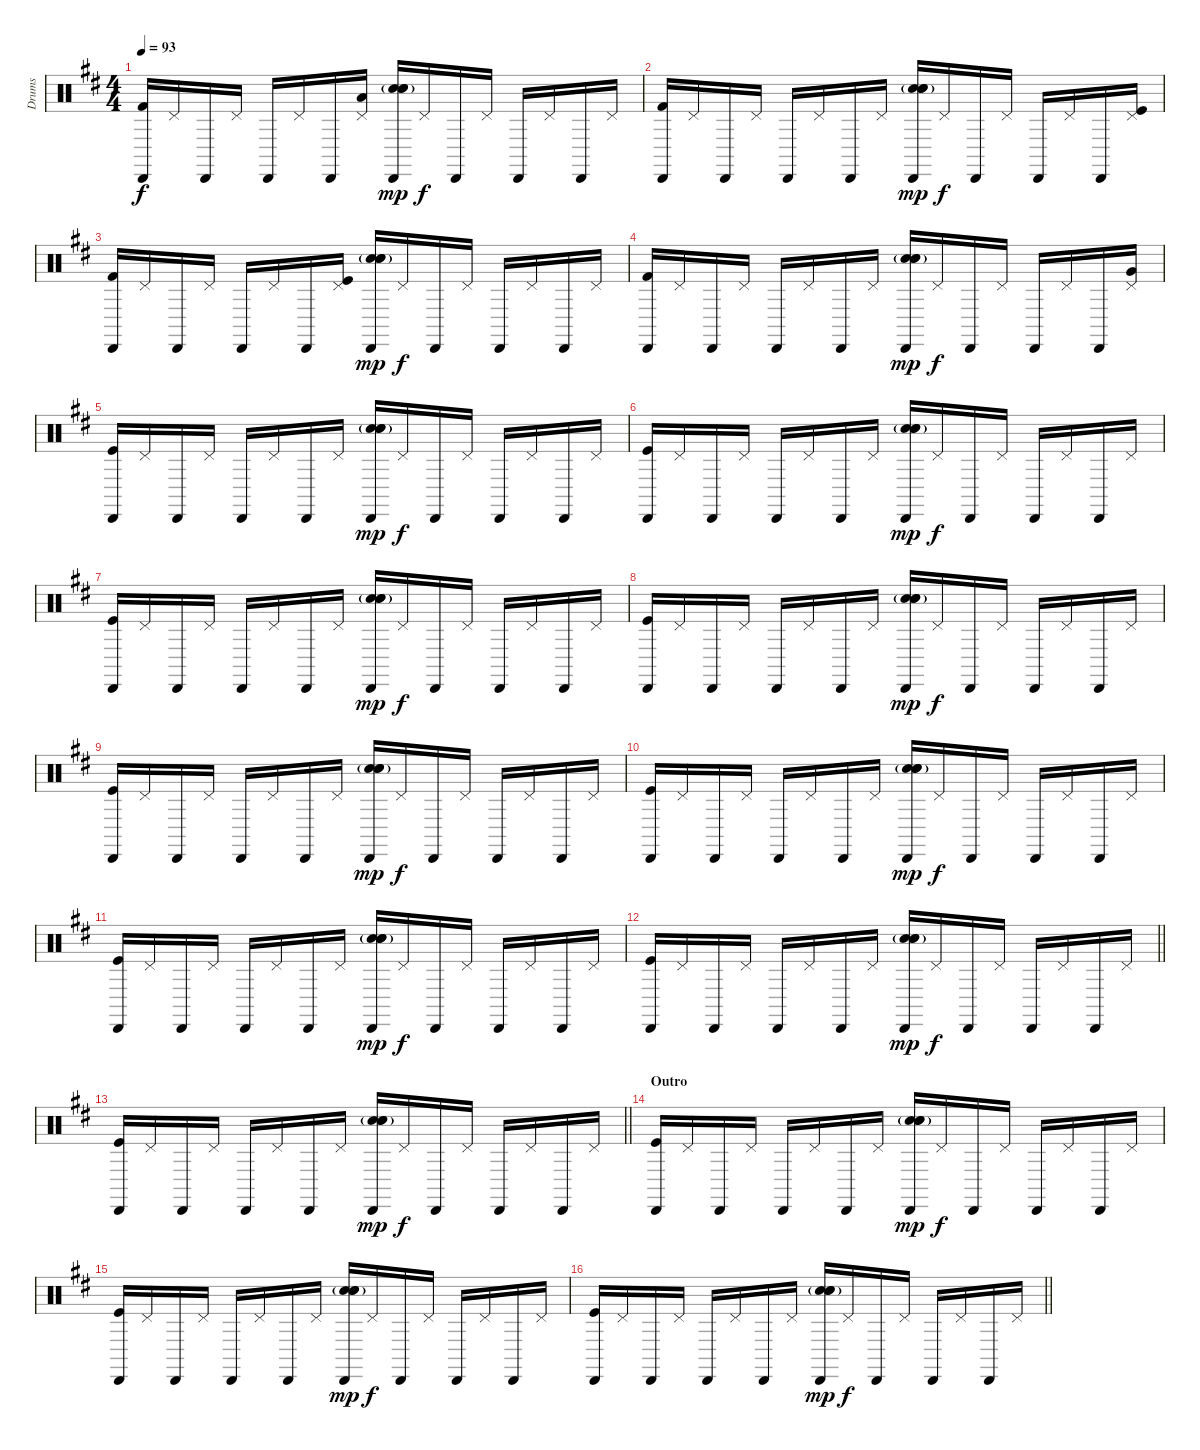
\track ("Drums" "Drums") {instrument percussion}
\staff {score}
\articulation defaults
\ts (4 4)
\tempo 93
\clef neutral
\ks d
("Cabasa (hit)" "Kick (hit) 2").16{dy f} "Pedal Hi-Hat (hit)".16 "Cabasa (hit)".16 "Pedal Hi-Hat (hit)".16 "Cabasa (hit)".16 "Pedal Hi-Hat (hit)".16 "Cabasa (hit)".16 ("Pedal Hi-Hat (hit)" "Low Tom (hit)").16 ("Cabasa (hit)" "Snare (hit) 2"{g} "Electric Snare (hit)"{g} "Electric Snare (hit)").16{dy mp} "Pedal Hi-Hat (hit)".16{dy f} "Cabasa (hit)".16 "Pedal Hi-Hat (hit)".16 "Cabasa (hit)".16 "Pedal Hi-Hat (hit)".16 "Cabasa (hit)".16 "Pedal Hi-Hat (hit)".16 |
("Cabasa (hit)" "Kick (hit) 2").16 "Pedal Hi-Hat (hit)".16 "Cabasa (hit)".16 "Pedal Hi-Hat (hit)".16 "Cabasa (hit)".16 "Pedal Hi-Hat (hit)".16 "Cabasa (hit)".16 "Pedal Hi-Hat (hit)".16 ("Cabasa (hit)" "Snare (hit) 2"{g} "Electric Snare (hit)"{g} "Electric Snare (hit)").16{dy mp} "Pedal Hi-Hat (hit)".16{dy f} "Cabasa (hit)".16 "Pedal Hi-Hat (hit)".16 "Cabasa (hit)".16 "Pedal Hi-Hat (hit)".16 "Cabasa (hit)".16 ("Pedal Hi-Hat (hit)" "Kick (hit)").16 |
("Cabasa (hit)" "Kick (hit) 2").16 "Pedal Hi-Hat (hit)".16 "Cabasa (hit)".16 "Pedal Hi-Hat (hit)".16 "Cabasa (hit)".16 "Pedal Hi-Hat (hit)".16 "Cabasa (hit)".16 ("Pedal Hi-Hat (hit)" "Kick (hit)").16 ("Cabasa (hit)" "Snare (hit) 2"{g} "Electric Snare (hit)"{g} "Electric Snare (hit)").16{dy mp} "Pedal Hi-Hat (hit)".16{dy f} "Cabasa (hit)".16 "Pedal Hi-Hat (hit)".16 "Cabasa (hit)".16 "Pedal Hi-Hat (hit)".16 "Cabasa (hit)".16 "Pedal Hi-Hat (hit)".16 |
("Cabasa (hit)" "Kick (hit) 2").16 "Pedal Hi-Hat (hit)".16 "Cabasa (hit)".16 "Pedal Hi-Hat (hit)".16 "Cabasa (hit)".16 "Pedal Hi-Hat (hit)".16 "Cabasa (hit)".16 "Pedal Hi-Hat (hit)".16 ("Cabasa (hit)" "Snare (hit) 2"{g} "Electric Snare (hit)"{g} "Electric Snare (hit)").16{dy mp} "Pedal Hi-Hat (hit)".16{dy f} "Cabasa (hit)".16 "Pedal Hi-Hat (hit)".16 "Cabasa (hit)".16 "Pedal Hi-Hat (hit)".16 "Cabasa (hit)".16 ("Pedal Hi-Hat (hit)" "Very Low Tom (hit)").16 |
("Cabasa (hit)" "Kick (hit)").16 "Pedal Hi-Hat (hit)".16 "Cabasa (hit)".16 "Pedal Hi-Hat (hit)".16 "Cabasa (hit)".16 "Pedal Hi-Hat (hit)".16 "Cabasa (hit)".16 "Pedal Hi-Hat (hit)".16 ("Cabasa (hit)" "Snare (hit) 2"{g} "Electric Snare (hit)"{g} "Electric Snare (hit)").16{dy mp} "Pedal Hi-Hat (hit)".16{dy f} "Cabasa (hit)".16 "Pedal Hi-Hat (hit)".16 "Cabasa (hit)".16 "Pedal Hi-Hat (hit)".16 "Cabasa (hit)".16 "Pedal Hi-Hat (hit)".16 |
("Cabasa (hit)" "Kick (hit)").16 "Pedal Hi-Hat (hit)".16 "Cabasa (hit)".16 "Pedal Hi-Hat (hit)".16 "Cabasa (hit)".16 "Pedal Hi-Hat (hit)".16 "Cabasa (hit)".16 "Pedal Hi-Hat (hit)".16 ("Cabasa (hit)" "Snare (hit) 2"{g} "Electric Snare (hit)"{g} "Electric Snare (hit)").16{dy mp} "Pedal Hi-Hat (hit)".16{dy f} "Cabasa (hit)".16 "Pedal Hi-Hat (hit)".16 "Cabasa (hit)".16 "Pedal Hi-Hat (hit)".16 "Cabasa (hit)".16 "Pedal Hi-Hat (hit)".16 |
("Cabasa (hit)" "Kick (hit)").16 "Pedal Hi-Hat (hit)".16 "Cabasa (hit)".16 "Pedal Hi-Hat (hit)".16 "Cabasa (hit)".16 "Pedal Hi-Hat (hit)".16 "Cabasa (hit)".16 "Pedal Hi-Hat (hit)".16 ("Cabasa (hit)" "Snare (hit) 2"{g} "Electric Snare (hit)"{g} "Electric Snare (hit)").16{dy mp} "Pedal Hi-Hat (hit)".16{dy f} "Cabasa (hit)".16 "Pedal Hi-Hat (hit)".16 "Cabasa (hit)".16 "Pedal Hi-Hat (hit)".16 "Cabasa (hit)".16 "Pedal Hi-Hat (hit)".16 |
("Cabasa (hit)" "Kick (hit)").16 "Pedal Hi-Hat (hit)".16 "Cabasa (hit)".16 "Pedal Hi-Hat (hit)".16 "Cabasa (hit)".16 "Pedal Hi-Hat (hit)".16 "Cabasa (hit)".16 "Pedal Hi-Hat (hit)".16 ("Cabasa (hit)" "Snare (hit) 2"{g} "Electric Snare (hit)"{g} "Electric Snare (hit)").16{dy mp} "Pedal Hi-Hat (hit)".16{dy f} "Cabasa (hit)".16 "Pedal Hi-Hat (hit)".16 "Cabasa (hit)".16 "Pedal Hi-Hat (hit)".16 "Cabasa (hit)".16 "Pedal Hi-Hat (hit)".16 |
("Cabasa (hit)" "Kick (hit)").16 "Pedal Hi-Hat (hit)".16 "Cabasa (hit)".16 "Pedal Hi-Hat (hit)".16 "Cabasa (hit)".16 "Pedal Hi-Hat (hit)".16 "Cabasa (hit)".16 "Pedal Hi-Hat (hit)".16 ("Cabasa (hit)" "Snare (hit) 2"{g} "Electric Snare (hit)"{g} "Electric Snare (hit)").16{dy mp} "Pedal Hi-Hat (hit)".16{dy f} "Cabasa (hit)".16 "Pedal Hi-Hat (hit)".16 "Cabasa (hit)".16 "Pedal Hi-Hat (hit)".16 "Cabasa (hit)".16 "Pedal Hi-Hat (hit)".16 |
("Cabasa (hit)" "Kick (hit)").16 "Pedal Hi-Hat (hit)".16 "Cabasa (hit)".16 "Pedal Hi-Hat (hit)".16 "Cabasa (hit)".16 "Pedal Hi-Hat (hit)".16 "Cabasa (hit)".16 "Pedal Hi-Hat (hit)".16 ("Cabasa (hit)" "Snare (hit) 2"{g} "Electric Snare (hit)"{g} "Electric Snare (hit)").16{dy mp} "Pedal Hi-Hat (hit)".16{dy f} "Cabasa (hit)".16 "Pedal Hi-Hat (hit)".16 "Cabasa (hit)".16 "Pedal Hi-Hat (hit)".16 "Cabasa (hit)".16 "Pedal Hi-Hat (hit)".16 |
("Cabasa (hit)" "Kick (hit)").16 "Pedal Hi-Hat (hit)".16 "Cabasa (hit)".16 "Pedal Hi-Hat (hit)".16 "Cabasa (hit)".16 "Pedal Hi-Hat (hit)".16 "Cabasa (hit)".16 "Pedal Hi-Hat (hit)".16 ("Cabasa (hit)" "Snare (hit) 2"{g} "Electric Snare (hit)"{g} "Electric Snare (hit)").16{dy mp} "Pedal Hi-Hat (hit)".16{dy f} "Cabasa (hit)".16 "Pedal Hi-Hat (hit)".16 "Cabasa (hit)".16 "Pedal Hi-Hat (hit)".16 "Cabasa (hit)".16 "Pedal Hi-Hat (hit)".16 |
\barLineRight lightlight
("Cabasa (hit)" "Kick (hit)").16 "Pedal Hi-Hat (hit)".16 "Cabasa (hit)".16 "Pedal Hi-Hat (hit)".16 "Cabasa (hit)".16 "Pedal Hi-Hat (hit)".16 "Cabasa (hit)".16 "Pedal Hi-Hat (hit)".16 ("Cabasa (hit)" "Snare (hit) 2"{g} "Electric Snare (hit)"{g} "Electric Snare (hit)").16{dy mp} "Pedal Hi-Hat (hit)".16{dy f} "Cabasa (hit)".16 "Pedal Hi-Hat (hit)".16 "Cabasa (hit)".16 "Pedal Hi-Hat (hit)".16 "Cabasa (hit)".16 "Pedal Hi-Hat (hit)".16 |
\barLineRight lightlight
("Cabasa (hit)" "Kick (hit)").16 "Pedal Hi-Hat (hit)".16 "Cabasa (hit)".16 "Pedal Hi-Hat (hit)".16 "Cabasa (hit)".16 "Pedal Hi-Hat (hit)".16 "Cabasa (hit)".16 "Pedal Hi-Hat (hit)".16 ("Cabasa (hit)" "Snare (hit) 2"{g} "Electric Snare (hit)"{g} "Electric Snare (hit)").16{dy mp} "Pedal Hi-Hat (hit)".16{dy f} "Cabasa (hit)".16 "Pedal Hi-Hat (hit)".16 "Cabasa (hit)".16 "Pedal Hi-Hat (hit)".16 "Cabasa (hit)".16 "Pedal Hi-Hat (hit)".16 |
\section ("" "Outro")
("Cabasa (hit)" "Kick (hit)").16 "Pedal Hi-Hat (hit)".16 "Cabasa (hit)".16 "Pedal Hi-Hat (hit)".16 "Cabasa (hit)".16 "Pedal Hi-Hat (hit)".16 "Cabasa (hit)".16 "Pedal Hi-Hat (hit)".16 ("Cabasa (hit)" "Snare (hit) 2"{g} "Electric Snare (hit)"{g} "Electric Snare (hit)").16{dy mp} "Pedal Hi-Hat (hit)".16{dy f} "Cabasa (hit)".16 "Pedal Hi-Hat (hit)".16 "Cabasa (hit)".16 "Pedal Hi-Hat (hit)".16 "Cabasa (hit)".16 "Pedal Hi-Hat (hit)".16 |
("Cabasa (hit)" "Kick (hit)").16 "Pedal Hi-Hat (hit)".16 "Cabasa (hit)".16 "Pedal Hi-Hat (hit)".16 "Cabasa (hit)".16 "Pedal Hi-Hat (hit)".16 "Cabasa (hit)".16 "Pedal Hi-Hat (hit)".16 ("Cabasa (hit)" "Snare (hit) 2"{g} "Electric Snare (hit)"{g} "Electric Snare (hit)").16{dy mp} "Pedal Hi-Hat (hit)".16{dy f} "Cabasa (hit)".16 "Pedal Hi-Hat (hit)".16 "Cabasa (hit)".16 "Pedal Hi-Hat (hit)".16 "Cabasa (hit)".16 "Pedal Hi-Hat (hit)".16 |
\barLineRight lightlight
("Cabasa (hit)" "Kick (hit)").16 "Pedal Hi-Hat (hit)".16 "Cabasa (hit)".16 "Pedal Hi-Hat (hit)".16 "Cabasa (hit)".16 "Pedal Hi-Hat (hit)".16 "Cabasa (hit)".16 "Pedal Hi-Hat (hit)".16 ("Cabasa (hit)" "Snare (hit) 2"{g} "Electric Snare (hit)"{g} "Electric Snare (hit)").16{dy mp} "Pedal Hi-Hat (hit)".16{dy f} "Cabasa (hit)".16 "Pedal Hi-Hat (hit)".16 "Cabasa (hit)".16 "Pedal Hi-Hat (hit)".16 "Cabasa (hit)".16 "Pedal Hi-Hat (hit)".16
